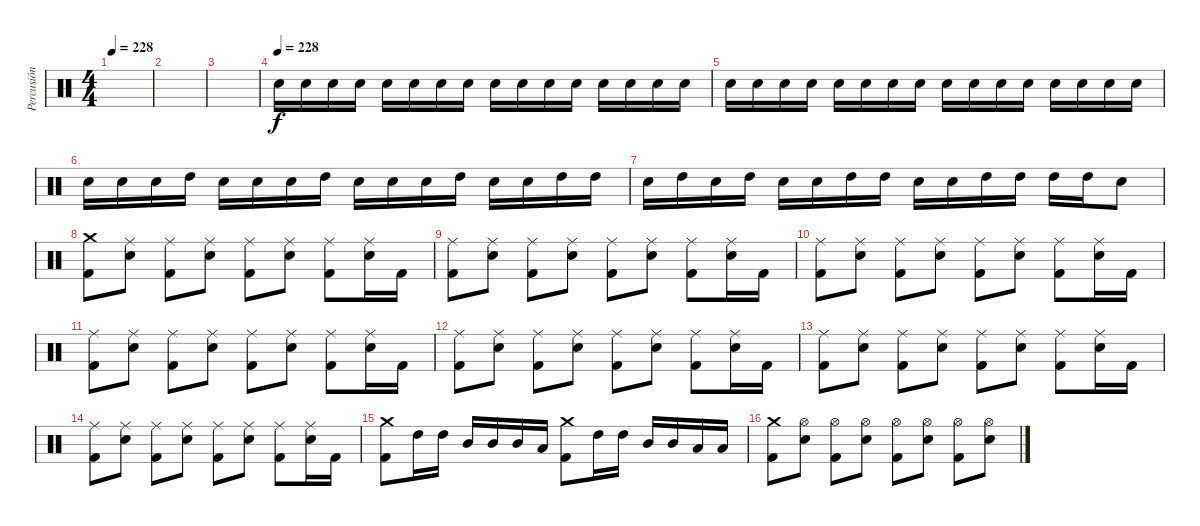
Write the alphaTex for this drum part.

\track ("Percusión" "Percusión") {instrument percussion}
\staff {score}
\articulation defaults
\ts (4 4)
\tempo 228
\clef neutral
\ks c
|
|
|
\tempo (228)
"Electric Snare (hit)".16 "Electric Snare (hit)".16 "Electric Snare (hit)".16 "Electric Snare (hit)".16 "Electric Snare (hit)".16 "Electric Snare (hit)".16 "Electric Snare (hit)".16 "Electric Snare (hit)".16 "Electric Snare (hit)".16 "Electric Snare (hit)".16 "Electric Snare (hit)".16 "Electric Snare (hit)".16 "Electric Snare (hit)".16 "Electric Snare (hit)".16 "Electric Snare (hit)".16 "Electric Snare (hit)".16 |
"Electric Snare (hit)".16 "Electric Snare (hit)".16 "Electric Snare (hit)".16 "Electric Snare (hit)".16 "Electric Snare (hit)".16 "Electric Snare (hit)".16 "Electric Snare (hit)".16 "Electric Snare (hit)".16 "Electric Snare (hit)".16 "Electric Snare (hit)".16 "Electric Snare (hit)".16 "Electric Snare (hit)".16 "Electric Snare (hit)".16 "Electric Snare (hit)".16 "Electric Snare (hit)".16 "Electric Snare (hit)".16 |
"Electric Snare (hit)".16 "Electric Snare (hit)".16 "Electric Snare (hit)".16 "High Tom (hit)".16 "Electric Snare (hit)".16 "Electric Snare (hit)".16 "Electric Snare (hit)".16 "High Tom (hit)".16 "Electric Snare (hit)".16 "Electric Snare (hit)".16 "Electric Snare (hit)".16 "High Tom (hit)".16 "Electric Snare (hit)".16 "Electric Snare (hit)".16 "High Tom (hit)".16 "High Tom (hit)".16 |
"Electric Snare (hit)".16 "High Tom (hit)".16 "Electric Snare (hit)".16 "High Tom (hit)".16 "Electric Snare (hit)".16 "Electric Snare (hit)".16 "High Tom (hit)".16 "High Tom (hit)".16 "Electric Snare (hit)".16 "Electric Snare (hit)".16 "High Tom (hit)".16 "High Tom (hit)".16 "High Tom (hit)".16 "High Tom (hit)".16 "Electric Snare (hit)".8 |
("Kick (hit) 2" "Crash medium (hit)").8 ("Ride (middle)" "Electric Snare (hit)").8 ("Ride (middle)" "Kick (hit) 2").8 ("Ride (middle)" "Electric Snare (hit)").8 ("Ride (middle)" "Kick (hit) 2").8 ("Ride (middle)" "Electric Snare (hit)").8 ("Ride (middle)" "Kick (hit) 2").8 ("Ride (middle)" "Electric Snare (hit)").16 "Kick (hit) 2".16 |
("Ride (middle)" "Kick (hit) 2").8 ("Ride (middle)" "Electric Snare (hit)").8 ("Ride (middle)" "Kick (hit) 2").8 ("Ride (middle)" "Electric Snare (hit)").8 ("Ride (middle)" "Kick (hit) 2").8 ("Ride (middle)" "Electric Snare (hit)").8 ("Ride (middle)" "Kick (hit) 2").8 ("Ride (middle)" "Electric Snare (hit)").16 "Kick (hit) 2".16 |
("Ride (middle)" "Kick (hit) 2").8 ("Ride (middle)" "Electric Snare (hit)").8 ("Ride (middle)" "Kick (hit) 2").8 ("Ride (middle)" "Electric Snare (hit)").8 ("Ride (middle)" "Kick (hit) 2").8 ("Ride (middle)" "Electric Snare (hit)").8 ("Ride (middle)" "Kick (hit) 2").8 ("Ride (middle)" "Electric Snare (hit)").16 "Kick (hit) 2".16 |
("Ride (middle)" "Kick (hit) 2").8 ("Ride (middle)" "Electric Snare (hit)").8 ("Ride (middle)" "Kick (hit) 2").8 ("Ride (middle)" "Electric Snare (hit)").8 ("Ride (middle)" "Kick (hit) 2").8 ("Ride (middle)" "Electric Snare (hit)").8 ("Ride (middle)" "Kick (hit) 2").8 ("Ride (middle)" "Electric Snare (hit)").16 "Kick (hit) 2".16 |
("Ride (middle)" "Kick (hit) 2").8 ("Ride (middle)" "Electric Snare (hit)").8 ("Ride (middle)" "Kick (hit) 2").8 ("Ride (middle)" "Electric Snare (hit)").8 ("Ride (middle)" "Kick (hit) 2").8 ("Ride (middle)" "Electric Snare (hit)").8 ("Ride (middle)" "Kick (hit) 2").8 ("Ride (middle)" "Electric Snare (hit)").16 "Kick (hit) 2".16 |
("Ride (middle)" "Kick (hit) 2").8 ("Ride (middle)" "Electric Snare (hit)").8 ("Ride (middle)" "Kick (hit) 2").8 ("Ride (middle)" "Electric Snare (hit)").8 ("Ride (middle)" "Kick (hit) 2").8 ("Ride (middle)" "Electric Snare (hit)").8 ("Ride (middle)" "Kick (hit) 2").8 ("Ride (middle)" "Electric Snare (hit)").16 "Kick (hit) 2".16 |
("Ride (middle)" "Kick (hit) 2").8 ("Ride (middle)" "Electric Snare (hit)").8 ("Ride (middle)" "Kick (hit) 2").8 ("Ride (middle)" "Electric Snare (hit)").8 ("Ride (middle)" "Kick (hit) 2").8 ("Ride (middle)" "Electric Snare (hit)").8 ("Ride (middle)" "Kick (hit) 2").8 ("Ride (middle)" "Electric Snare (hit)").16 "Kick (hit) 2".16 |
("Crash medium (hit)" "Kick (hit) 2").8 "High Tom (hit)".16 "High Tom (hit)".16 "Mid Tom (hit)".16 "Mid Tom (hit)".16 "Mid Tom (hit)".16 "Low Tom (hit)".16 ("Crash medium (hit)" "Kick (hit) 2").8 "High Tom (hit)".16 "High Tom (hit)".16 "Mid Tom (hit)".16 "Mid Tom (hit)".16 "Low Tom (hit)".16 "Low Tom (hit)".16 |
("Kick (hit) 2" "Crash medium (hit)").8 ("Hi-Hat (open)" "Electric Snare (hit)").8 ("Hi-Hat (open)" "Kick (hit) 2").8 ("Hi-Hat (open)" "Electric Snare (hit)").8 ("Hi-Hat (open)" "Kick (hit) 2").8 ("Hi-Hat (open)" "Electric Snare (hit)").8 ("Hi-Hat (open)" "Kick (hit) 2").8 ("Hi-Hat (open)" "Electric Snare (hit)").8
